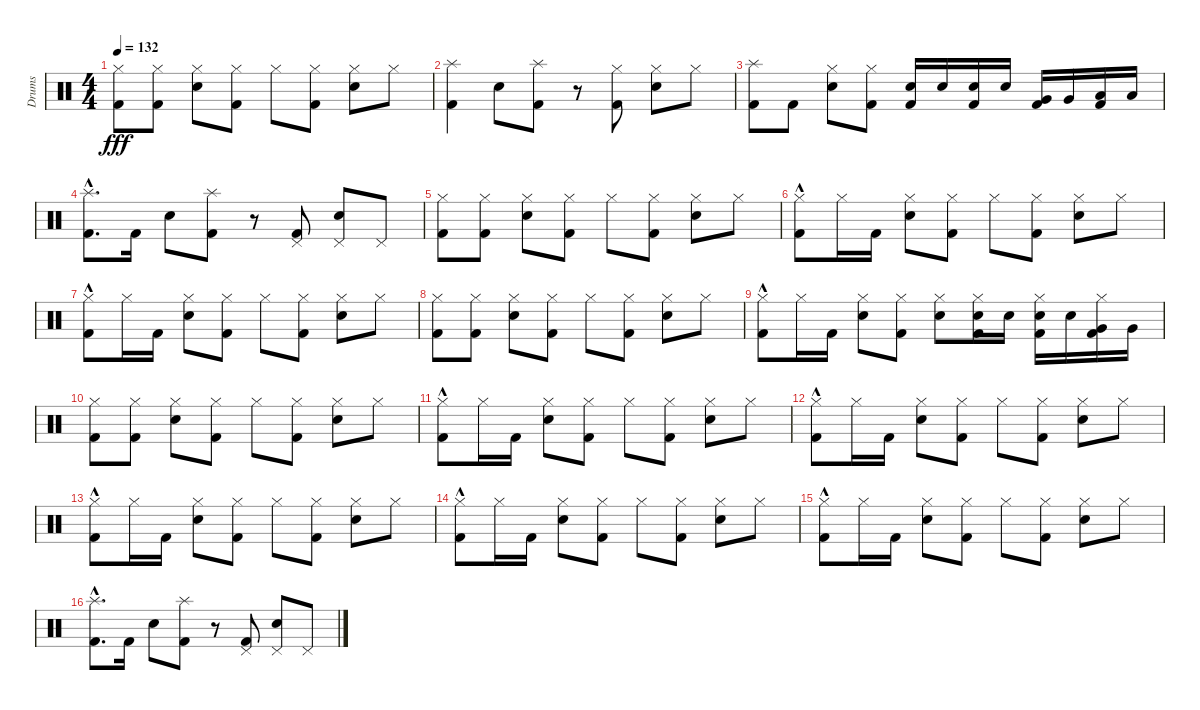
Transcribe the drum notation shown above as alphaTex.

\track ("Drums" "Drums") {instrument percussion}
\staff {score}
\articulation defaults
\ts (4 4)
\tempo 132
\clef neutral
\ks c
("Hi-Hat (closed)" "Kick (hit) 2").8{dy fff} ("Hi-Hat (closed)" "Kick (hit) 2").8 ("Hi-Hat (closed)" "Electric Snare (hit)").8 ("Hi-Hat (closed)" "Kick (hit) 2").8 "Hi-Hat (closed)".8 ("Hi-Hat (closed)" "Kick (hit) 2").8 ("Hi-Hat (closed)" "Electric Snare (hit)").8 "Hi-Hat (closed)".8 |
("Splash (hit)" "Kick (hit) 2").4 "Electric Snare (hit)".8 ("Splash (hit)" "Kick (hit) 2").8 r.8 ("Kick (hit) 2" "Hi-Hat (closed)").8 ("Electric Snare (hit)" "Hi-Hat (closed)").8 "Hi-Hat (closed)".8 |
("Splash (hit)" "Kick (hit) 2").8 "Kick (hit) 2".8 ("Hi-Hat (closed)" "Electric Snare (hit)").8 ("Hi-Hat (closed)" "Kick (hit) 2").8 ("Kick (hit) 2" "Electric Snare (hit)").16 "Electric Snare (hit)".16 ("Kick (hit) 2" "Electric Snare (hit)").16 "Electric Snare (hit)".16 ("Very Low Tom (hit)" "Kick (hit) 2").16 "Very Low Tom (hit)".16 ("Low Floor Tom (hit)" "Kick (hit) 2").16 "Low Floor Tom (hit)".16 |
("Kick (hit) 2"{hac} "Splash (hit)"{hac}).8{d} "Kick (hit) 2".16 "Electric Snare (hit)".8 ("Splash (hit)" "Kick (hit) 2").8 r.8 ("Kick (hit) 2" "Pedal Hi-Hat (hit)").8 ("Electric Snare (hit)" "Pedal Hi-Hat (hit)").8 "Pedal Hi-Hat (hit)".8 |
("Hi-Hat (closed)" "Kick (hit) 2").8 ("Hi-Hat (closed)" "Kick (hit) 2").8 ("Hi-Hat (closed)" "Electric Snare (hit)").8 ("Hi-Hat (closed)" "Kick (hit) 2").8 "Hi-Hat (closed)".8 ("Hi-Hat (closed)" "Kick (hit) 2").8 ("Hi-Hat (closed)" "Electric Snare (hit)").8 "Hi-Hat (closed)".8 |
("Hi-Hat (closed)" "Kick (hit) 2"{hac}).8 "Hi-Hat (closed)".16 "Kick (hit) 2".16 ("Hi-Hat (closed)" "Electric Snare (hit)").8 ("Hi-Hat (closed)" "Kick (hit) 2").8 "Hi-Hat (closed)".8 ("Hi-Hat (closed)" "Kick (hit) 2").8 ("Hi-Hat (closed)" "Electric Snare (hit)").8 "Hi-Hat (closed)".8 |
("Kick (hit) 2"{hac} "Hi-Hat (closed)").8 "Hi-Hat (closed)".16 "Kick (hit) 2".16 ("Electric Snare (hit)" "Hi-Hat (closed)").8 ("Kick (hit) 2" "Hi-Hat (closed)").8 "Hi-Hat (closed)".8 ("Kick (hit) 2" "Hi-Hat (closed)").8 ("Electric Snare (hit)" "Hi-Hat (closed)").8 "Hi-Hat (closed)".8 |
("Kick (hit) 2" "Hi-Hat (closed)").8 ("Kick (hit) 2" "Hi-Hat (closed)").8 ("Electric Snare (hit)" "Hi-Hat (closed)").8 ("Kick (hit) 2" "Hi-Hat (closed)").8 "Hi-Hat (closed)".8 ("Kick (hit) 2" "Hi-Hat (closed)").8 ("Electric Snare (hit)" "Hi-Hat (closed)").8 "Hi-Hat (closed)".8 |
("Kick (hit) 2"{hac} "Hi-Hat (closed)").8 "Hi-Hat (closed)".16 "Kick (hit) 2".16 ("Electric Snare (hit)" "Hi-Hat (closed)").8 ("Kick (hit) 2" "Hi-Hat (closed)").8 ("Electric Snare (hit)" "Hi-Hat (closed)").8 ("Kick (hit) 2" "Electric Snare (hit)" "Hi-Hat (closed)").16 "Electric Snare (hit)".16 ("Hi-Hat (closed)" "Kick (hit) 2" "Electric Snare (hit)").16 "Electric Snare (hit)".16 ("Hi-Hat (closed)" "Kick (hit) 2" "Very Low Tom (hit)").16 "Very Low Tom (hit)".16 |
("Hi-Hat (closed)" "Kick (hit) 2").8 ("Hi-Hat (closed)" "Kick (hit) 2").8 ("Hi-Hat (closed)" "Electric Snare (hit)").8 ("Hi-Hat (closed)" "Kick (hit) 2").8 "Hi-Hat (closed)".8 ("Hi-Hat (closed)" "Kick (hit) 2").8 ("Hi-Hat (closed)" "Electric Snare (hit)").8 "Hi-Hat (closed)".8 |
("Hi-Hat (closed)" "Kick (hit) 2"{hac}).8 "Hi-Hat (closed)".16 "Kick (hit) 2".16 ("Hi-Hat (closed)" "Electric Snare (hit)").8 ("Hi-Hat (closed)" "Kick (hit) 2").8 "Hi-Hat (closed)".8 ("Kick (hit) 2" "Hi-Hat (closed)").8 ("Hi-Hat (closed)" "Electric Snare (hit)").8 "Hi-Hat (closed)".8 |
("Hi-Hat (closed)" "Kick (hit) 2"{hac}).8 "Hi-Hat (closed)".16 "Kick (hit) 2".16 ("Hi-Hat (closed)" "Electric Snare (hit)").8 ("Hi-Hat (closed)" "Kick (hit) 2").8 "Hi-Hat (closed)".8 ("Kick (hit) 2" "Hi-Hat (closed)").8 ("Hi-Hat (closed)" "Electric Snare (hit)").8 "Hi-Hat (closed)".8 |
("Hi-Hat (closed)" "Kick (hit) 2"{hac}).8 "Hi-Hat (closed)".16 "Kick (hit) 2".16 ("Hi-Hat (closed)" "Electric Snare (hit)").8 ("Hi-Hat (closed)" "Kick (hit) 2").8 "Hi-Hat (closed)".8 ("Kick (hit) 2" "Hi-Hat (closed)").8 ("Hi-Hat (closed)" "Electric Snare (hit)").8 "Hi-Hat (closed)".8 |
("Hi-Hat (closed)" "Kick (hit) 2"{hac}).8 "Hi-Hat (closed)".16 "Kick (hit) 2".16 ("Hi-Hat (closed)" "Electric Snare (hit)").8 ("Hi-Hat (closed)" "Kick (hit) 2").8 "Hi-Hat (closed)".8 ("Kick (hit) 2" "Hi-Hat (closed)").8 ("Hi-Hat (closed)" "Electric Snare (hit)").8 "Hi-Hat (closed)".8 |
("Hi-Hat (closed)" "Kick (hit) 2"{hac}).8 "Hi-Hat (closed)".16 "Kick (hit) 2".16 ("Hi-Hat (closed)" "Electric Snare (hit)").8 ("Hi-Hat (closed)" "Kick (hit) 2").8 "Hi-Hat (closed)".8 ("Kick (hit) 2" "Hi-Hat (closed)").8 ("Hi-Hat (closed)" "Electric Snare (hit)").8 "Hi-Hat (closed)".8 |
("Kick (hit) 2"{hac} "Splash (hit)"{hac}).8{d} "Kick (hit) 2".16 "Electric Snare (hit)".8 ("Splash (hit)" "Kick (hit) 2").8 r.8 ("Kick (hit) 2" "Pedal Hi-Hat (hit)").8 ("Electric Snare (hit)" "Pedal Hi-Hat (hit)").8 "Pedal Hi-Hat (hit)".8
